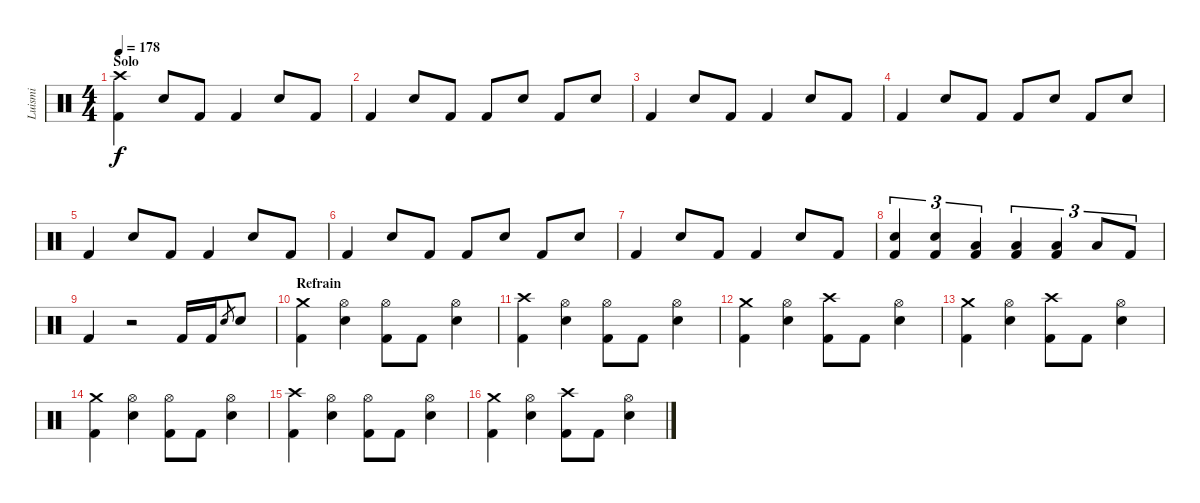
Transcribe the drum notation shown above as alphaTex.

\track ("Luismi" "Luismi") {instrument percussion}
\staff {score}
\articulation defaults
\ts (4 4)
\section ("" "Solo")
\tempo 178
\clef neutral
\ks c
("Crash high (hit)" "Kick (hit) 2").4{dy f} "Snare (hit) 2".8 "Kick (hit) 2".8 "Kick (hit) 2".4 "Snare (hit) 2".8 "Kick (hit) 2".8 |
"Kick (hit) 2".4 "Snare (hit) 2".8 "Kick (hit) 2".8 "Kick (hit) 2".8 "Snare (hit) 2".8 "Kick (hit) 2".8 "Snare (hit) 2".8 |
"Kick (hit) 2".4 "Snare (hit) 2".8 "Kick (hit) 2".8 "Kick (hit) 2".4 "Snare (hit) 2".8 "Kick (hit) 2".8 |
"Kick (hit) 2".4 "Snare (hit) 2".8 "Kick (hit) 2".8 "Kick (hit) 2".8 "Snare (hit) 2".8 "Kick (hit) 2".8 "Snare (hit) 2".8 |
"Kick (hit) 2".4 "Snare (hit) 2".8 "Kick (hit) 2".8 "Kick (hit) 2".4 "Snare (hit) 2".8 "Kick (hit) 2".8 |
"Kick (hit) 2".4 "Snare (hit) 2".8 "Kick (hit) 2".8 "Kick (hit) 2".8 "Snare (hit) 2".8 "Kick (hit) 2".8 "Snare (hit) 2".8 |
"Kick (hit) 2".4 "Snare (hit) 2".8 "Kick (hit) 2".8 "Kick (hit) 2".4 "Snare (hit) 2".8 "Kick (hit) 2".8 |
("Snare (hit) 2" "Kick (hit) 2").4{tu (3 2)} ("Snare (hit) 2" "Kick (hit) 2").4{tu (3 2)} ("Low Tom (hit)" "Kick (hit) 2").4{tu (3 2)} ("Low Floor Tom (hit)" "Kick (hit) 2").4{tu (3 2)} ("Low Floor Tom (hit)" "Kick (hit) 2").4{tu (3 2)} "Low Floor Tom (hit)".8{tu (3 2)} "Kick (hit) 2".8{tu (3 2)} |
"Kick (hit) 2".4 r.2 "Kick (hit) 2".16 "Kick (hit) 2".16 "Snare (hit) 2".8{gr} "Snare (hit) 2".8 |
\section ("" "Refrain")
("Crash medium (hit)" "Kick (hit) 2").4 ("Hi-Hat (open)" "Snare (hit) 2").4 ("Hi-Hat (open)" "Kick (hit) 2").8 "Kick (hit) 2".8 ("Hi-Hat (open)" "Snare (hit) 2").4 |
("Crash high (hit)" "Kick (hit) 2").4 ("Hi-Hat (open)" "Snare (hit) 2").4 ("Hi-Hat (open)" "Kick (hit) 2").8 "Kick (hit) 2".8 ("Hi-Hat (open)" "Snare (hit) 2").4 |
("Crash medium (hit)" "Kick (hit) 2").4 ("Hi-Hat (open)" "Snare (hit) 2").4 ("Crash high (hit)" "Kick (hit) 2").8 "Kick (hit) 2".8 ("Hi-Hat (open)" "Snare (hit) 2").4 |
("Crash medium (hit)" "Kick (hit) 2").4 ("Hi-Hat (open)" "Snare (hit) 2").4 ("Crash high (hit)" "Kick (hit) 2").8 "Kick (hit) 2".8 ("Hi-Hat (open)" "Snare (hit) 2").4 |
("Crash medium (hit)" "Kick (hit) 2").4 ("Hi-Hat (open)" "Snare (hit) 2").4 ("Hi-Hat (open)" "Kick (hit) 2").8 "Kick (hit) 2".8 ("Hi-Hat (open)" "Snare (hit) 2").4 |
("Crash high (hit)" "Kick (hit) 2").4 ("Hi-Hat (open)" "Snare (hit) 2").4 ("Hi-Hat (open)" "Kick (hit) 2").8 "Kick (hit) 2".8 ("Hi-Hat (open)" "Snare (hit) 2").4 |
("Crash medium (hit)" "Kick (hit) 2").4 ("Hi-Hat (open)" "Snare (hit) 2").4 ("Crash high (hit)" "Kick (hit) 2").8 "Kick (hit) 2".8 ("Hi-Hat (open)" "Snare (hit) 2").4
